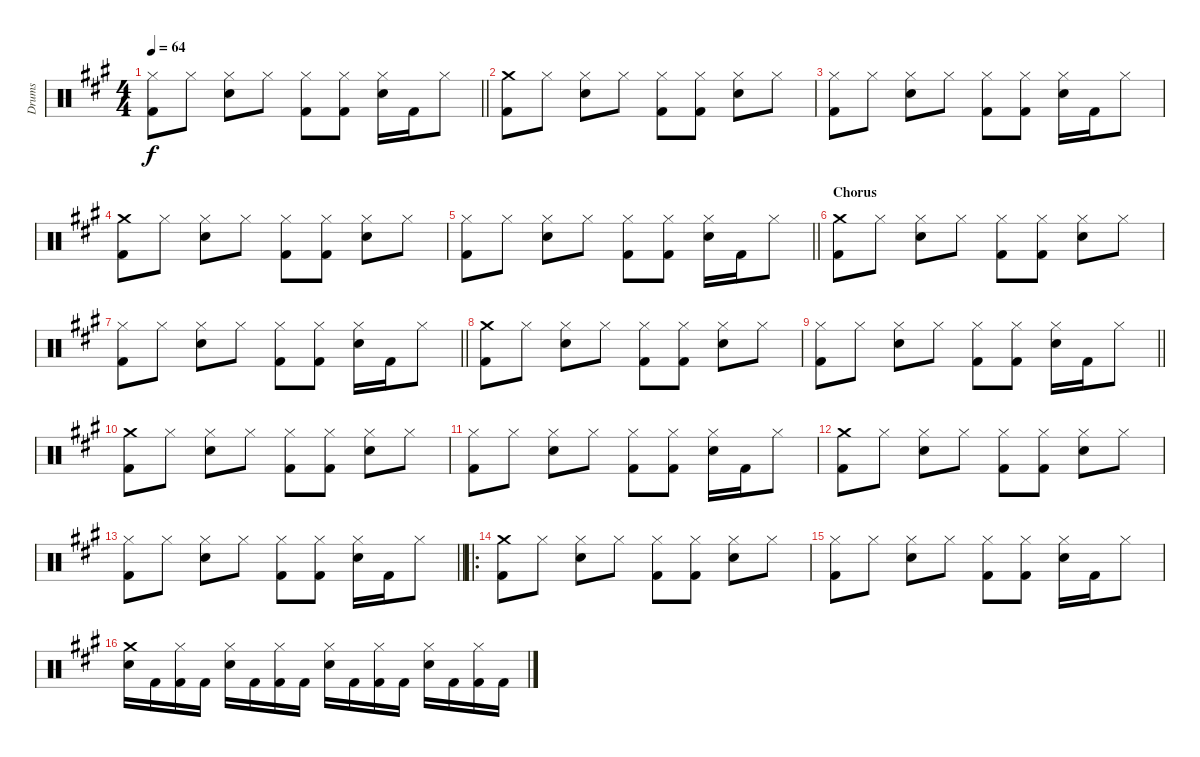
\track ("Drums" "Drums") {instrument percussion}
\staff {score}
\articulation defaults
\ts (4 4)
\tempo 64
\clef neutral
\barLineRight lightlight
\ks a
("Hi-Hat (closed)" "Kick (hit) 2").8{dy f} "Hi-Hat (closed)".8 ("Hi-Hat (closed)" "Electric Snare (hit)").8 "Hi-Hat (closed)".8 ("Hi-Hat (closed)" "Kick (hit) 2").8 ("Hi-Hat (closed)" "Kick (hit) 2").8 ("Hi-Hat (closed)" "Electric Snare (hit)").16 "Kick (hit) 2".16 "Hi-Hat (closed)".8 |
("Crash medium (hit)" "Kick (hit) 2").8 "Hi-Hat (closed)".8 ("Hi-Hat (closed)" "Electric Snare (hit)").8 "Hi-Hat (closed)".8 ("Hi-Hat (closed)" "Kick (hit) 2").8 ("Hi-Hat (closed)" "Kick (hit) 2").8 ("Hi-Hat (closed)" "Electric Snare (hit)").8 "Hi-Hat (closed)".8 |
("Hi-Hat (closed)" "Kick (hit) 2").8 "Hi-Hat (closed)".8 ("Hi-Hat (closed)" "Electric Snare (hit)").8 "Hi-Hat (closed)".8 ("Hi-Hat (closed)" "Kick (hit) 2").8 ("Hi-Hat (closed)" "Kick (hit) 2").8 ("Hi-Hat (closed)" "Electric Snare (hit)").16 "Kick (hit) 2".16 "Hi-Hat (closed)".8 |
("Crash medium (hit)" "Kick (hit) 2").8 "Hi-Hat (closed)".8 ("Hi-Hat (closed)" "Electric Snare (hit)").8 "Hi-Hat (closed)".8 ("Hi-Hat (closed)" "Kick (hit) 2").8 ("Hi-Hat (closed)" "Kick (hit) 2").8 ("Hi-Hat (closed)" "Electric Snare (hit)").8 "Hi-Hat (closed)".8 |
\barLineRight lightlight
("Hi-Hat (closed)" "Kick (hit) 2").8 "Hi-Hat (closed)".8 ("Hi-Hat (closed)" "Electric Snare (hit)").8 "Hi-Hat (closed)".8 ("Hi-Hat (closed)" "Kick (hit) 2").8 ("Hi-Hat (closed)" "Kick (hit) 2").8 ("Hi-Hat (closed)" "Electric Snare (hit)").16 "Kick (hit) 2".16 "Hi-Hat (closed)".8 |
\section ("" "Chorus")
("Crash medium (hit)" "Kick (hit) 2").8{volume 14} "Hi-Hat (closed)".8 ("Hi-Hat (closed)" "Electric Snare (hit)").8 "Hi-Hat (closed)".8 ("Hi-Hat (closed)" "Kick (hit) 2").8 ("Hi-Hat (closed)" "Kick (hit) 2").8 ("Hi-Hat (closed)" "Electric Snare (hit)").8 "Hi-Hat (closed)".8 |
\barLineRight lightlight
("Hi-Hat (closed)" "Kick (hit) 2").8 "Hi-Hat (closed)".8 ("Hi-Hat (closed)" "Electric Snare (hit)").8 "Hi-Hat (closed)".8 ("Hi-Hat (closed)" "Kick (hit) 2").8 ("Hi-Hat (closed)" "Kick (hit) 2").8 ("Hi-Hat (closed)" "Electric Snare (hit)").16 "Kick (hit) 2".16 "Hi-Hat (closed)".8 |
("Crash medium (hit)" "Kick (hit) 2").8{volume 14} "Hi-Hat (closed)".8 ("Hi-Hat (closed)" "Electric Snare (hit)").8 "Hi-Hat (closed)".8 ("Hi-Hat (closed)" "Kick (hit) 2").8 ("Hi-Hat (closed)" "Kick (hit) 2").8 ("Hi-Hat (closed)" "Electric Snare (hit)").8 "Hi-Hat (closed)".8 |
\barLineRight lightlight
("Hi-Hat (closed)" "Kick (hit) 2").8 "Hi-Hat (closed)".8 ("Hi-Hat (closed)" "Electric Snare (hit)").8 "Hi-Hat (closed)".8 ("Hi-Hat (closed)" "Kick (hit) 2").8 ("Hi-Hat (closed)" "Kick (hit) 2").8 ("Hi-Hat (closed)" "Electric Snare (hit)").16 "Kick (hit) 2".16 "Hi-Hat (closed)".8 |
("Crash medium (hit)" "Kick (hit) 2").8 "Hi-Hat (closed)".8 ("Hi-Hat (closed)" "Electric Snare (hit)").8 "Hi-Hat (closed)".8 ("Hi-Hat (closed)" "Kick (hit) 2").8 ("Hi-Hat (closed)" "Kick (hit) 2").8 ("Hi-Hat (closed)" "Electric Snare (hit)").8 "Hi-Hat (closed)".8 |
("Hi-Hat (closed)" "Kick (hit) 2").8 "Hi-Hat (closed)".8 ("Hi-Hat (closed)" "Electric Snare (hit)").8 "Hi-Hat (closed)".8 ("Hi-Hat (closed)" "Kick (hit) 2").8 ("Hi-Hat (closed)" "Kick (hit) 2").8 ("Hi-Hat (closed)" "Electric Snare (hit)").16 "Kick (hit) 2".16 "Hi-Hat (closed)".8 |
("Crash medium (hit)" "Kick (hit) 2").8 "Hi-Hat (closed)".8 ("Hi-Hat (closed)" "Electric Snare (hit)").8 "Hi-Hat (closed)".8 ("Hi-Hat (closed)" "Kick (hit) 2").8 ("Hi-Hat (closed)" "Kick (hit) 2").8 ("Hi-Hat (closed)" "Electric Snare (hit)").8 "Hi-Hat (closed)".8 |
\barLineRight lightlight
("Hi-Hat (closed)" "Kick (hit) 2").8 "Hi-Hat (closed)".8 ("Hi-Hat (closed)" "Electric Snare (hit)").8 "Hi-Hat (closed)".8 ("Hi-Hat (closed)" "Kick (hit) 2").8 ("Hi-Hat (closed)" "Kick (hit) 2").8 ("Hi-Hat (closed)" "Electric Snare (hit)").16 "Kick (hit) 2".16 "Hi-Hat (closed)".8 |
\ro
("Crash medium (hit)" "Kick (hit) 2").8 "Hi-Hat (closed)".8 ("Hi-Hat (closed)" "Electric Snare (hit)").8 "Hi-Hat (closed)".8 ("Hi-Hat (closed)" "Kick (hit) 2").8 ("Hi-Hat (closed)" "Kick (hit) 2").8 ("Hi-Hat (closed)" "Electric Snare (hit)").8 "Hi-Hat (closed)".8 |
("Hi-Hat (closed)" "Kick (hit) 2").8 "Hi-Hat (closed)".8 ("Hi-Hat (closed)" "Electric Snare (hit)").8 "Hi-Hat (closed)".8 ("Hi-Hat (closed)" "Kick (hit) 2").8 ("Hi-Hat (closed)" "Kick (hit) 2").8 ("Hi-Hat (closed)" "Electric Snare (hit)").16 "Kick (hit) 2".16 "Hi-Hat (closed)".8 |
("Crash medium (hit)" "Electric Snare (hit)").16 "Kick (hit) 2".16 ("Hi-Hat (closed)" "Kick (hit) 2").16 "Kick (hit) 2".16 ("Hi-Hat (closed)" "Electric Snare (hit)").16 "Kick (hit) 2".16 ("Hi-Hat (closed)" "Kick (hit) 2").16 "Kick (hit) 2".16 ("Hi-Hat (closed)" "Electric Snare (hit)").16 "Kick (hit) 2".16 ("Hi-Hat (closed)" "Kick (hit) 2").16 "Kick (hit) 2".16 ("Hi-Hat (closed)" "Electric Snare (hit)").16 "Kick (hit) 2".16 ("Hi-Hat (closed)" "Kick (hit) 2").16 "Kick (hit) 2".16
